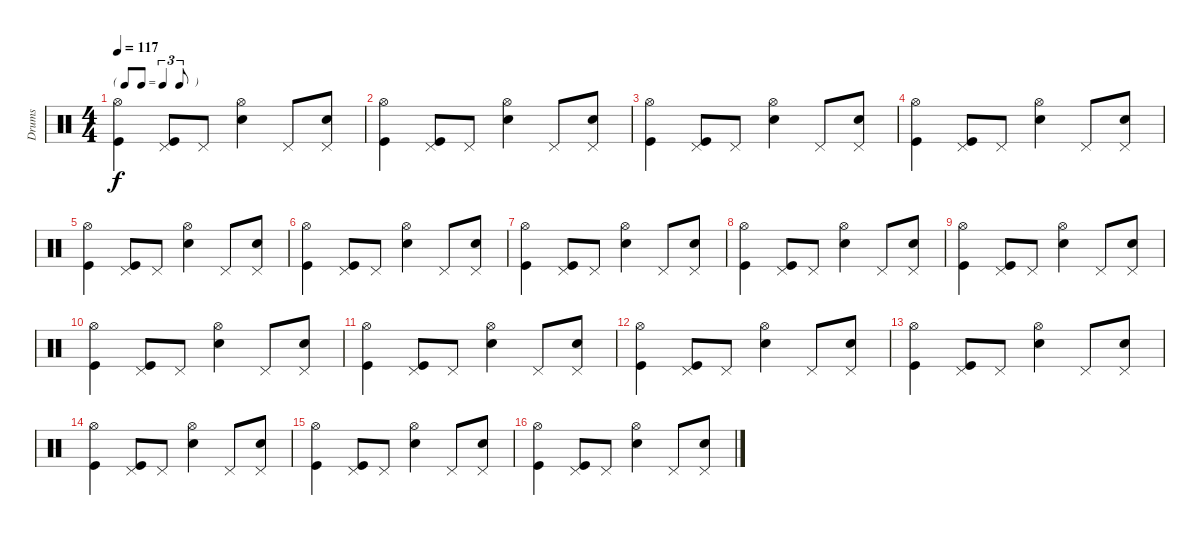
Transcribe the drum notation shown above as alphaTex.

\track ("Drums" "Drums") {instrument percussion}
\staff {score}
\articulation defaults
\ts (4 4)
\tf triplet8th
\tempo 117
\clef neutral
\ks c
("Hi-Hat (open)" "Kick (hit)").4{dy f} ("Pedal Hi-Hat (hit)" "Kick (hit)").8 "Pedal Hi-Hat (hit)".8 ("Hi-Hat (open)" "Snare (hit) 2").4 "Pedal Hi-Hat (hit)".8 ("Pedal Hi-Hat (hit)" "Snare (hit) 2").8 |
("Hi-Hat (open)" "Kick (hit)").4 ("Pedal Hi-Hat (hit)" "Kick (hit)").8 "Pedal Hi-Hat (hit)".8 ("Hi-Hat (open)" "Snare (hit) 2").4 "Pedal Hi-Hat (hit)".8 ("Pedal Hi-Hat (hit)" "Snare (hit) 2").8 |
("Hi-Hat (open)" "Kick (hit)").4 ("Pedal Hi-Hat (hit)" "Kick (hit)").8 "Pedal Hi-Hat (hit)".8 ("Hi-Hat (open)" "Snare (hit) 2").4 "Pedal Hi-Hat (hit)".8 ("Pedal Hi-Hat (hit)" "Snare (hit) 2").8 |
("Hi-Hat (open)" "Kick (hit)").4 ("Pedal Hi-Hat (hit)" "Kick (hit)").8 "Pedal Hi-Hat (hit)".8 ("Hi-Hat (open)" "Snare (hit) 2").4 "Pedal Hi-Hat (hit)".8 ("Pedal Hi-Hat (hit)" "Snare (hit) 2").8 |
("Hi-Hat (open)" "Kick (hit)").4 ("Pedal Hi-Hat (hit)" "Kick (hit)").8 "Pedal Hi-Hat (hit)".8 ("Hi-Hat (open)" "Snare (hit) 2").4 "Pedal Hi-Hat (hit)".8 ("Pedal Hi-Hat (hit)" "Snare (hit) 2").8 |
("Hi-Hat (open)" "Kick (hit)").4 ("Pedal Hi-Hat (hit)" "Kick (hit)").8 "Pedal Hi-Hat (hit)".8 ("Hi-Hat (open)" "Snare (hit) 2").4 "Pedal Hi-Hat (hit)".8 ("Pedal Hi-Hat (hit)" "Snare (hit) 2").8 |
("Hi-Hat (open)" "Kick (hit)").4 ("Pedal Hi-Hat (hit)" "Kick (hit)").8 "Pedal Hi-Hat (hit)".8 ("Hi-Hat (open)" "Snare (hit) 2").4 "Pedal Hi-Hat (hit)".8 ("Pedal Hi-Hat (hit)" "Snare (hit) 2").8 |
("Hi-Hat (open)" "Kick (hit)").4 ("Pedal Hi-Hat (hit)" "Kick (hit)").8 "Pedal Hi-Hat (hit)".8 ("Hi-Hat (open)" "Snare (hit) 2").4 "Pedal Hi-Hat (hit)".8 ("Pedal Hi-Hat (hit)" "Snare (hit) 2").8 |
("Hi-Hat (open)" "Kick (hit)").4 ("Pedal Hi-Hat (hit)" "Kick (hit)").8 "Pedal Hi-Hat (hit)".8 ("Hi-Hat (open)" "Snare (hit) 2").4 "Pedal Hi-Hat (hit)".8 ("Pedal Hi-Hat (hit)" "Snare (hit) 2").8 |
("Hi-Hat (open)" "Kick (hit)").4 ("Pedal Hi-Hat (hit)" "Kick (hit)").8 "Pedal Hi-Hat (hit)".8 ("Hi-Hat (open)" "Snare (hit) 2").4 "Pedal Hi-Hat (hit)".8 ("Pedal Hi-Hat (hit)" "Snare (hit) 2").8 |
("Hi-Hat (open)" "Kick (hit)").4 ("Pedal Hi-Hat (hit)" "Kick (hit)").8 "Pedal Hi-Hat (hit)".8 ("Hi-Hat (open)" "Snare (hit) 2").4 "Pedal Hi-Hat (hit)".8 ("Pedal Hi-Hat (hit)" "Snare (hit) 2").8 |
("Hi-Hat (open)" "Kick (hit)").4 ("Pedal Hi-Hat (hit)" "Kick (hit)").8 "Pedal Hi-Hat (hit)".8 ("Hi-Hat (open)" "Snare (hit) 2").4 "Pedal Hi-Hat (hit)".8 ("Pedal Hi-Hat (hit)" "Snare (hit) 2").8 |
("Hi-Hat (open)" "Kick (hit)").4 ("Pedal Hi-Hat (hit)" "Kick (hit)").8 "Pedal Hi-Hat (hit)".8 ("Hi-Hat (open)" "Snare (hit) 2").4 "Pedal Hi-Hat (hit)".8 ("Pedal Hi-Hat (hit)" "Snare (hit) 2").8 |
("Hi-Hat (open)" "Kick (hit)").4 ("Pedal Hi-Hat (hit)" "Kick (hit)").8 "Pedal Hi-Hat (hit)".8 ("Hi-Hat (open)" "Snare (hit) 2").4 "Pedal Hi-Hat (hit)".8 ("Pedal Hi-Hat (hit)" "Snare (hit) 2").8 |
("Hi-Hat (open)" "Kick (hit)").4 ("Pedal Hi-Hat (hit)" "Kick (hit)").8 "Pedal Hi-Hat (hit)".8 ("Hi-Hat (open)" "Snare (hit) 2").4 "Pedal Hi-Hat (hit)".8 ("Pedal Hi-Hat (hit)" "Snare (hit) 2").8 |
("Hi-Hat (open)" "Kick (hit)").4 ("Pedal Hi-Hat (hit)" "Kick (hit)").8 "Pedal Hi-Hat (hit)".8 ("Hi-Hat (open)" "Snare (hit) 2").4 "Pedal Hi-Hat (hit)".8 ("Pedal Hi-Hat (hit)" "Snare (hit) 2").8
